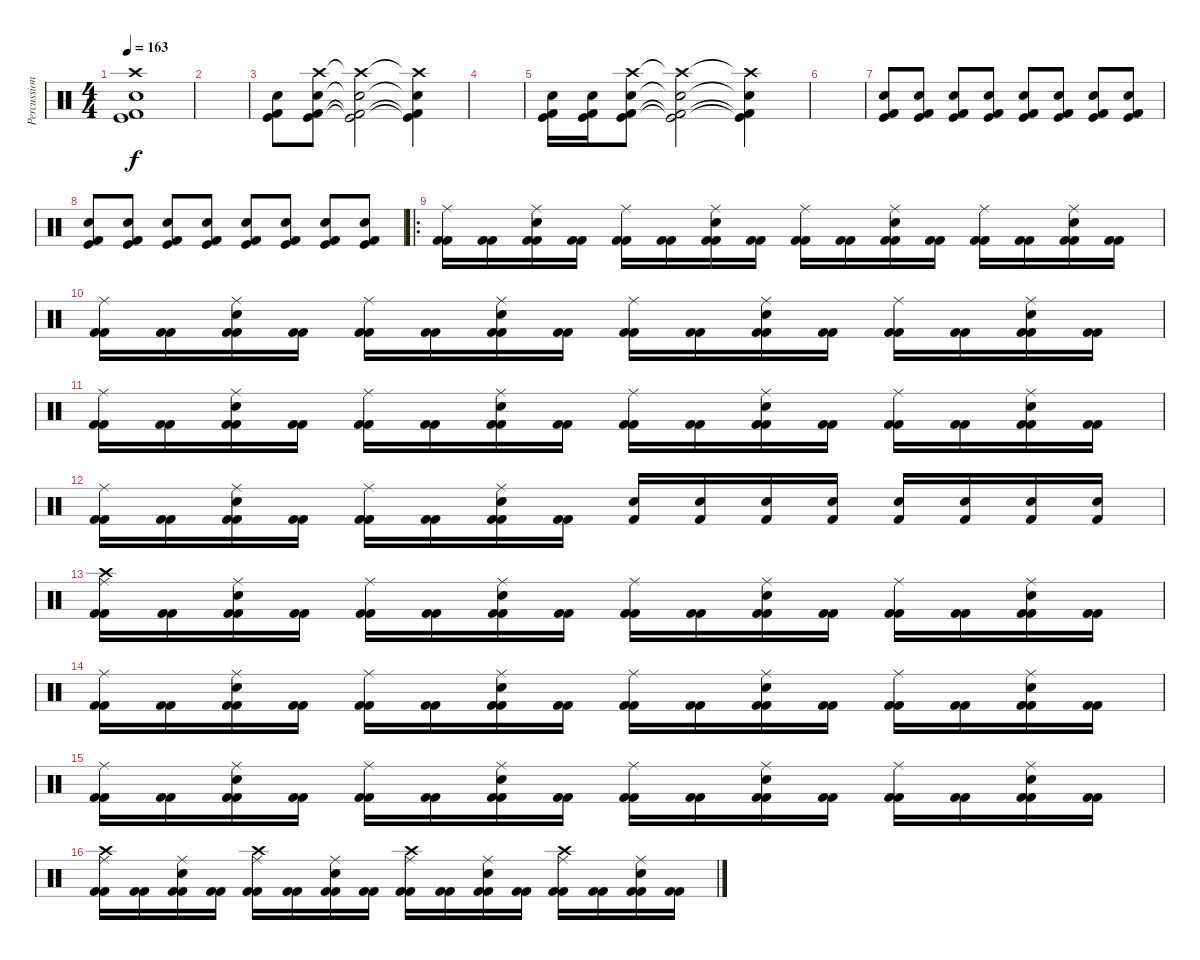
\track ("Percussion" "Percussion") {instrument percussion}
\staff {score}
\articulation defaults
\ts (4 4)
\tempo 163
\clef neutral
\ks c
("Kick (hit) 2" "Kick (hit)" "Electric Snare (hit)" "Crash high (hit)").1{dy f} |
|
("Kick (hit) 2" "Kick (hit)" "Electric Snare (hit)").8 ("Kick (hit) 2" "Kick (hit)" "Electric Snare (hit)" "Crash high (hit)").8 ("Kick (hit) 2"{t} "Kick (hit)"{t} "Electric Snare (hit)"{t} "Crash high (hit)"{t}).2 ("Kick (hit) 2"{t} "Kick (hit)"{t} "Electric Snare (hit)"{t} "Crash high (hit)"{t}).4 |
|
("Kick (hit) 2" "Kick (hit)" "Electric Snare (hit)").16 ("Kick (hit) 2" "Kick (hit)" "Electric Snare (hit)").16 ("Kick (hit) 2" "Kick (hit)" "Electric Snare (hit)" "Crash high (hit)").8 ("Kick (hit) 2"{t} "Kick (hit)"{t} "Electric Snare (hit)"{t} "Crash high (hit)"{t}).2 ("Kick (hit) 2"{t} "Kick (hit)"{t} "Electric Snare (hit)"{t} "Crash high (hit)"{t}).4 |
|
("Kick (hit) 2" "Kick (hit)" "Electric Snare (hit)").8 ("Kick (hit) 2" "Kick (hit)" "Electric Snare (hit)").8 ("Kick (hit) 2" "Kick (hit)" "Electric Snare (hit)").8 ("Kick (hit) 2" "Kick (hit)" "Electric Snare (hit)").8 ("Kick (hit) 2" "Kick (hit)" "Electric Snare (hit)").8 ("Kick (hit) 2" "Kick (hit)" "Electric Snare (hit)").8 ("Kick (hit) 2" "Kick (hit)" "Electric Snare (hit)").8 ("Kick (hit) 2" "Kick (hit)" "Electric Snare (hit)").8 |
("Kick (hit) 2" "Kick (hit)" "Electric Snare (hit)").8 ("Kick (hit) 2" "Kick (hit)" "Electric Snare (hit)").8 ("Kick (hit) 2" "Kick (hit)" "Electric Snare (hit)").8 ("Kick (hit) 2" "Kick (hit)" "Electric Snare (hit)").8 ("Kick (hit) 2" "Kick (hit)" "Electric Snare (hit)").8 ("Kick (hit) 2" "Kick (hit)" "Electric Snare (hit)").8 ("Kick (hit) 2" "Kick (hit)" "Electric Snare (hit)").8 ("Kick (hit) 2" "Kick (hit)" "Electric Snare (hit)").8 |
\ro
("Kick (hit) 2" "Kick (hit) 2" "Ride (middle)").16 ("Kick (hit) 2" "Kick (hit) 2").16 ("Kick (hit) 2" "Kick (hit) 2" "Electric Snare (hit)" "Ride (middle)").16 ("Kick (hit) 2" "Kick (hit) 2").16 ("Kick (hit) 2" "Kick (hit) 2" "Ride (middle)").16 ("Kick (hit) 2" "Kick (hit) 2").16 ("Kick (hit) 2" "Kick (hit) 2" "Electric Snare (hit)" "Ride (middle)").16 ("Kick (hit) 2" "Kick (hit) 2").16 ("Kick (hit) 2" "Kick (hit) 2" "Ride (middle)").16 ("Kick (hit) 2" "Kick (hit) 2").16 ("Kick (hit) 2" "Kick (hit) 2" "Electric Snare (hit)" "Ride (middle)").16 ("Kick (hit) 2" "Kick (hit) 2").16 ("Kick (hit) 2" "Kick (hit) 2" "Ride (middle)").16 ("Kick (hit) 2" "Kick (hit) 2").16 ("Kick (hit) 2" "Kick (hit) 2" "Electric Snare (hit)" "Ride (middle)").16 ("Kick (hit) 2" "Kick (hit) 2").16 |
("Kick (hit) 2" "Kick (hit) 2" "Ride (middle)").16 ("Kick (hit) 2" "Kick (hit) 2").16 ("Kick (hit) 2" "Kick (hit) 2" "Electric Snare (hit)" "Ride (middle)").16 ("Kick (hit) 2" "Kick (hit) 2").16 ("Kick (hit) 2" "Kick (hit) 2" "Ride (middle)").16 ("Kick (hit) 2" "Kick (hit) 2").16 ("Kick (hit) 2" "Kick (hit) 2" "Electric Snare (hit)" "Ride (middle)").16 ("Kick (hit) 2" "Kick (hit) 2").16 ("Kick (hit) 2" "Kick (hit) 2" "Ride (middle)").16 ("Kick (hit) 2" "Kick (hit) 2").16 ("Kick (hit) 2" "Kick (hit) 2" "Electric Snare (hit)" "Ride (middle)").16 ("Kick (hit) 2" "Kick (hit) 2").16 ("Kick (hit) 2" "Kick (hit) 2" "Ride (middle)").16 ("Kick (hit) 2" "Kick (hit) 2").16 ("Kick (hit) 2" "Kick (hit) 2" "Electric Snare (hit)" "Ride (middle)").16 ("Kick (hit) 2" "Kick (hit) 2").16 |
("Kick (hit) 2" "Kick (hit) 2" "Ride (middle)").16 ("Kick (hit) 2" "Kick (hit) 2").16 ("Kick (hit) 2" "Kick (hit) 2" "Electric Snare (hit)" "Ride (middle)").16 ("Kick (hit) 2" "Kick (hit) 2").16 ("Kick (hit) 2" "Kick (hit) 2" "Ride (middle)").16 ("Kick (hit) 2" "Kick (hit) 2").16 ("Kick (hit) 2" "Kick (hit) 2" "Electric Snare (hit)" "Ride (middle)").16 ("Kick (hit) 2" "Kick (hit) 2").16 ("Kick (hit) 2" "Kick (hit) 2" "Ride (middle)").16 ("Kick (hit) 2" "Kick (hit) 2").16 ("Kick (hit) 2" "Kick (hit) 2" "Electric Snare (hit)" "Ride (middle)").16 ("Kick (hit) 2" "Kick (hit) 2").16 ("Kick (hit) 2" "Kick (hit) 2" "Ride (middle)").16 ("Kick (hit) 2" "Kick (hit) 2").16 ("Kick (hit) 2" "Kick (hit) 2" "Electric Snare (hit)" "Ride (middle)").16 ("Kick (hit) 2" "Kick (hit) 2").16 |
("Kick (hit) 2" "Kick (hit) 2" "Ride (middle)").16 ("Kick (hit) 2" "Kick (hit) 2").16 ("Kick (hit) 2" "Kick (hit) 2" "Electric Snare (hit)" "Ride (middle)").16 ("Kick (hit) 2" "Kick (hit) 2").16 ("Kick (hit) 2" "Kick (hit) 2" "Ride (middle)").16 ("Kick (hit) 2" "Kick (hit) 2").16 ("Kick (hit) 2" "Kick (hit) 2" "Electric Snare (hit)" "Ride (middle)").16 ("Kick (hit) 2" "Kick (hit) 2").16 ("Kick (hit) 2" "Electric Snare (hit)").16 ("Kick (hit) 2" "Electric Snare (hit)").16 ("Kick (hit) 2" "Electric Snare (hit)").16 ("Kick (hit) 2" "Electric Snare (hit)").16 ("Kick (hit) 2" "Electric Snare (hit)").16 ("Kick (hit) 2" "Electric Snare (hit)").16 ("Kick (hit) 2" "Electric Snare (hit)").16 ("Kick (hit) 2" "Electric Snare (hit)").16 |
("Kick (hit) 2" "Kick (hit) 2" "Ride (middle)" "Crash high (hit)").16 ("Kick (hit) 2" "Kick (hit) 2").16 ("Kick (hit) 2" "Kick (hit) 2" "Electric Snare (hit)" "Ride (middle)").16 ("Kick (hit) 2" "Kick (hit) 2").16 ("Kick (hit) 2" "Kick (hit) 2" "Ride (middle)").16 ("Kick (hit) 2" "Kick (hit) 2").16 ("Kick (hit) 2" "Kick (hit) 2" "Electric Snare (hit)" "Ride (middle)").16 ("Kick (hit) 2" "Kick (hit) 2").16 ("Kick (hit) 2" "Kick (hit) 2" "Ride (middle)").16 ("Kick (hit) 2" "Kick (hit) 2").16 ("Kick (hit) 2" "Kick (hit) 2" "Electric Snare (hit)" "Ride (middle)").16 ("Kick (hit) 2" "Kick (hit) 2").16 ("Kick (hit) 2" "Kick (hit) 2" "Ride (middle)").16 ("Kick (hit) 2" "Kick (hit) 2").16 ("Kick (hit) 2" "Kick (hit) 2" "Electric Snare (hit)" "Ride (middle)").16 ("Kick (hit) 2" "Kick (hit) 2").16 |
("Kick (hit) 2" "Kick (hit) 2" "Ride (middle)").16 ("Kick (hit) 2" "Kick (hit) 2").16 ("Kick (hit) 2" "Kick (hit) 2" "Electric Snare (hit)" "Ride (middle)").16 ("Kick (hit) 2" "Kick (hit) 2").16 ("Kick (hit) 2" "Kick (hit) 2" "Ride (middle)").16 ("Kick (hit) 2" "Kick (hit) 2").16 ("Kick (hit) 2" "Kick (hit) 2" "Electric Snare (hit)" "Ride (middle)").16 ("Kick (hit) 2" "Kick (hit) 2").16 ("Kick (hit) 2" "Kick (hit) 2" "Ride (middle)").16 ("Kick (hit) 2" "Kick (hit) 2").16 ("Kick (hit) 2" "Kick (hit) 2" "Electric Snare (hit)" "Ride (middle)").16 ("Kick (hit) 2" "Kick (hit) 2").16 ("Kick (hit) 2" "Kick (hit) 2" "Ride (middle)").16 ("Kick (hit) 2" "Kick (hit) 2").16 ("Kick (hit) 2" "Kick (hit) 2" "Electric Snare (hit)" "Ride (middle)").16 ("Kick (hit) 2" "Kick (hit) 2").16 |
("Kick (hit) 2" "Kick (hit) 2" "Ride (middle)").16 ("Kick (hit) 2" "Kick (hit) 2").16 ("Kick (hit) 2" "Kick (hit) 2" "Electric Snare (hit)" "Ride (middle)").16 ("Kick (hit) 2" "Kick (hit) 2").16 ("Kick (hit) 2" "Kick (hit) 2" "Ride (middle)").16 ("Kick (hit) 2" "Kick (hit) 2").16 ("Kick (hit) 2" "Kick (hit) 2" "Electric Snare (hit)" "Ride (middle)").16 ("Kick (hit) 2" "Kick (hit) 2").16 ("Kick (hit) 2" "Kick (hit) 2" "Ride (middle)").16 ("Kick (hit) 2" "Kick (hit) 2").16 ("Kick (hit) 2" "Kick (hit) 2" "Electric Snare (hit)" "Ride (middle)").16 ("Kick (hit) 2" "Kick (hit) 2").16 ("Kick (hit) 2" "Kick (hit) 2" "Ride (middle)").16 ("Kick (hit) 2" "Kick (hit) 2").16 ("Kick (hit) 2" "Kick (hit) 2" "Electric Snare (hit)" "Ride (middle)").16 ("Kick (hit) 2" "Kick (hit) 2").16 |
("Kick (hit) 2" "Kick (hit) 2" "Ride (middle)" "Crash high (hit)").16 ("Kick (hit) 2" "Kick (hit) 2").16 ("Kick (hit) 2" "Kick (hit) 2" "Electric Snare (hit)" "Ride (middle)").16 ("Kick (hit) 2" "Kick (hit) 2").16 ("Kick (hit) 2" "Kick (hit) 2" "Ride (middle)" "Crash high (hit)").16 ("Kick (hit) 2" "Kick (hit) 2").16 ("Kick (hit) 2" "Kick (hit) 2" "Electric Snare (hit)" "Ride (middle)").16 ("Kick (hit) 2" "Kick (hit) 2").16 ("Kick (hit) 2" "Kick (hit) 2" "Ride (middle)" "Crash high (hit)").16 ("Kick (hit) 2" "Kick (hit) 2").16 ("Kick (hit) 2" "Kick (hit) 2" "Electric Snare (hit)" "Ride (middle)").16 ("Kick (hit) 2" "Kick (hit) 2").16 ("Kick (hit) 2" "Kick (hit) 2" "Ride (middle)" "Crash high (hit)").16 ("Kick (hit) 2" "Kick (hit) 2").16 ("Kick (hit) 2" "Kick (hit) 2" "Electric Snare (hit)" "Ride (middle)").16 ("Kick (hit) 2" "Kick (hit) 2").16
